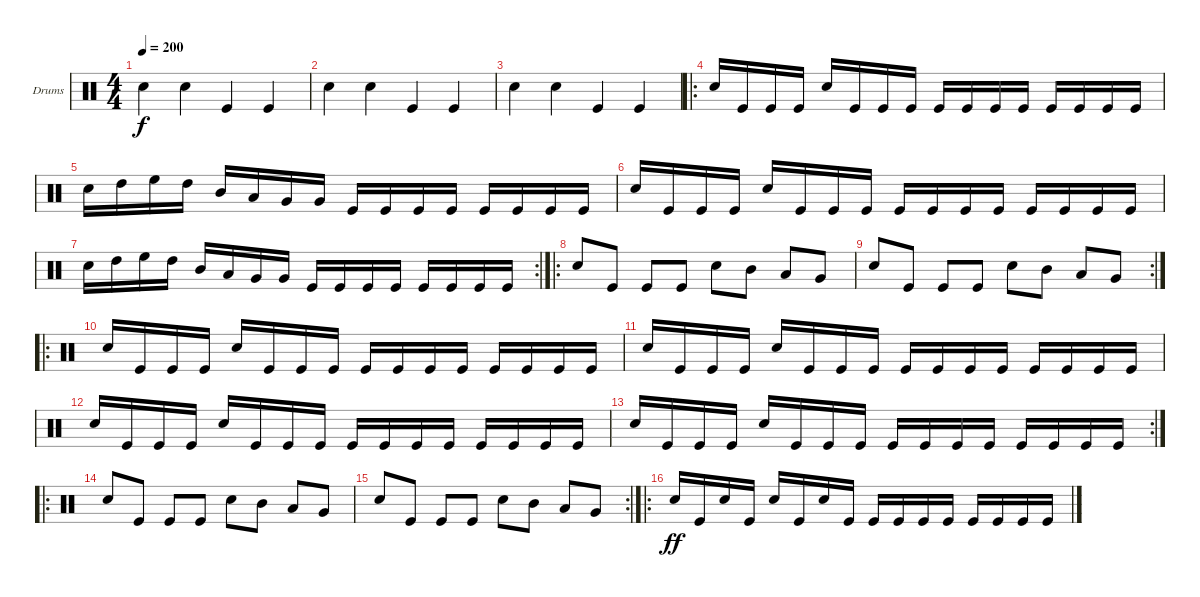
\defaultSystemsLayout 4
\bracketExtendMode groupsimilarinstruments
\firstSystemTrackNameOrientation horizontal
\otherSystemsTrackNameOrientation horizontal
\track ("Corpse Blaster" "Drums") {instrument percussion}
\staff {score}
\articulation defaults
\ts (4 4)
\tempo 200
\clef neutral
\ks c "Snare (hit) 2".4{dy f} "Snare (hit) 2".4 "Kick (hit)".4 "Kick (hit)".4
|
"Snare (hit) 2".4 "Snare (hit) 2".4 "Kick (hit)".4 "Kick (hit)".4 |
"Snare (hit) 2".4 "Snare (hit) 2".4 "Kick (hit)".4 "Kick (hit)".4 |
\ro "Snare (hit) 2".16 "Kick (hit)".16 "Kick (hit)".16 "Kick (hit)".16 "Snare (hit) 2".16 "Kick (hit)".16 "Kick (hit)".16 "Kick (hit)".16 "Kick (hit)".16 "Kick (hit)".16 "Kick (hit)".16 "Kick (hit)".16 "Kick (hit)".16 "Kick (hit)".16 "Kick (hit)".16 "Kick (hit)".16
|
"Snare (hit) 2".16 "High Tom (hit)".16 "High Floor Tom (hit)".16 "High Tom (hit)".16 "Mid Tom (hit)".16 "Low Tom (hit)".16 "Very Low Tom (hit)".16 "Very Low Tom (hit)".16 "Kick (hit)".16 "Kick (hit)".16 "Kick (hit)".16 "Kick (hit)".16 "Kick (hit)".16 "Kick (hit)".16 "Kick (hit)".16 "Kick (hit)".16 |
"Snare (hit) 2".16 "Kick (hit)".16 "Kick (hit)".16 "Kick (hit)".16 "Snare (hit) 2".16 "Kick (hit)".16 "Kick (hit)".16 "Kick (hit)".16 "Kick (hit)".16 "Kick (hit)".16 "Kick (hit)".16 "Kick (hit)".16 "Kick (hit)".16 "Kick (hit)".16 "Kick (hit)".16 "Kick (hit)".16 |
\rc 2 "Snare (hit) 2".16 "High Tom (hit)".16 "High Floor Tom (hit)".16 "High Tom (hit)".16 "Mid Tom (hit)".16 "Low Tom (hit)".16 "Very Low Tom (hit)".16 "Very Low Tom (hit)".16 "Kick (hit)".16 "Kick (hit)".16 "Kick (hit)".16 "Kick (hit)".16 "Kick (hit)".16 "Kick (hit)".16 "Kick (hit)".16 "Kick (hit)".16
|
\ro "Snare (hit) 2".8 "Kick (hit)".8 "Kick (hit)".8 "Kick (hit)".8 "Snare (hit) 2".8 "Mid Tom (hit)".8 "Low Tom (hit)".8 "Very Low Tom (hit)".8
|
\rc 2 "Snare (hit) 2".8 "Kick (hit)".8 "Kick (hit)".8 "Kick (hit)".8 "Snare (hit) 2".8 "Mid Tom (hit)".8 "Low Tom (hit)".8 "Very Low Tom (hit)".8
|
\ro "Snare (hit) 2".16 "Kick (hit)".16 "Kick (hit)".16 "Kick (hit)".16 "Snare (hit) 2".16 "Kick (hit)".16 "Kick (hit)".16 "Kick (hit)".16 "Kick (hit)".16 "Kick (hit)".16 "Kick (hit)".16 "Kick (hit)".16 "Kick (hit)".16 "Kick (hit)".16 "Kick (hit)".16 "Kick (hit)".16
|
"Snare (hit) 2".16 "Kick (hit)".16 "Kick (hit)".16 "Kick (hit)".16 "Snare (hit) 2".16 "Kick (hit)".16 "Kick (hit)".16 "Kick (hit)".16 "Kick (hit)".16 "Kick (hit)".16 "Kick (hit)".16 "Kick (hit)".16 "Kick (hit)".16 "Kick (hit)".16 "Kick (hit)".16 "Kick (hit)".16 |
"Snare (hit) 2".16 "Kick (hit)".16 "Kick (hit)".16 "Kick (hit)".16 "Snare (hit) 2".16 "Kick (hit)".16 "Kick (hit)".16 "Kick (hit)".16 "Kick (hit)".16 "Kick (hit)".16 "Kick (hit)".16 "Kick (hit)".16 "Kick (hit)".16 "Kick (hit)".16 "Kick (hit)".16 "Kick (hit)".16 |
\rc 2 "Snare (hit) 2".16 "Kick (hit)".16 "Kick (hit)".16 "Kick (hit)".16 "Snare (hit) 2".16 "Kick (hit)".16 "Kick (hit)".16 "Kick (hit)".16 "Kick (hit)".16 "Kick (hit)".16 "Kick (hit)".16 "Kick (hit)".16 "Kick (hit)".16 "Kick (hit)".16 "Kick (hit)".16 "Kick (hit)".16
|
\ro "Snare (hit) 2".8 "Kick (hit)".8 "Kick (hit)".8 "Kick (hit)".8 "Snare (hit) 2".8 "Mid Tom (hit)".8 "Low Tom (hit)".8 "Very Low Tom (hit)".8
|
\rc 2 "Snare (hit) 2".8 "Kick (hit)".8 "Kick (hit)".8 "Kick (hit)".8 "Snare (hit) 2".8 "Mid Tom (hit)".8 "Low Tom (hit)".8 "Very Low Tom (hit)".8
|
\ro "Snare (hit) 2".16{dy ff} "Kick (hit)".16 "Snare (hit) 2".16 "Kick (hit)".16 "Snare (hit) 2".16 "Kick (hit)".16 "Snare (hit) 2".16 "Kick (hit)".16 "Kick (hit)".16 "Kick (hit)".16 "Kick (hit)".16 "Kick (hit)".16 "Kick (hit)".16 "Kick (hit)".16 "Kick (hit)".16 "Kick (hit)".16
